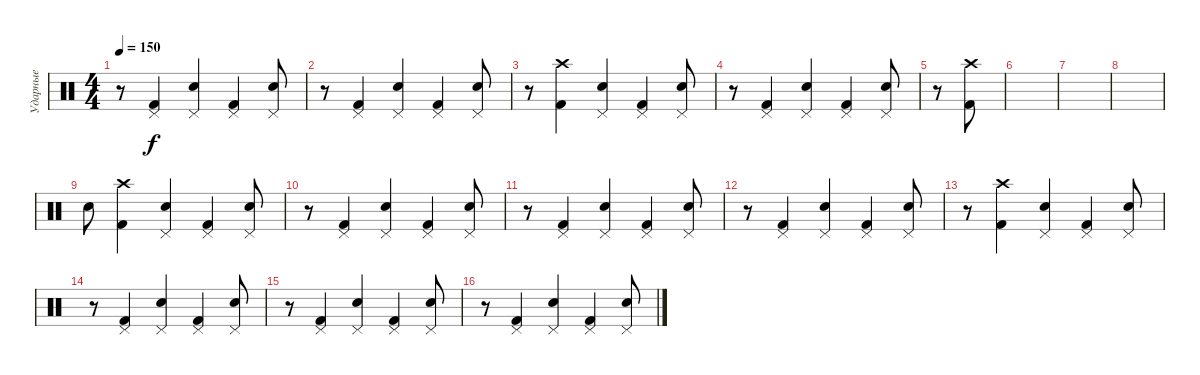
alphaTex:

\track ("Ударные" "Ударные") {instrument percussion}
\staff {score}
\articulation defaults
\ts (4 4)
\tempo 150
\clef neutral
\ks c
r.8{dy f} ("Kick (hit) 2" "Pedal Hi-Hat (hit)").4 ("Electric Snare (hit)" "Pedal Hi-Hat (hit)").4 ("Kick (hit) 2" "Pedal Hi-Hat (hit)").4 ("Electric Snare (hit)" "Pedal Hi-Hat (hit)").8 |
r.8 ("Kick (hit) 2" "Pedal Hi-Hat (hit)").4 ("Electric Snare (hit)" "Pedal Hi-Hat (hit)").4 ("Kick (hit) 2" "Pedal Hi-Hat (hit)").4 ("Electric Snare (hit)" "Pedal Hi-Hat (hit)").8 |
r.8 ("Kick (hit) 2" "Crash high (hit)").4 ("Electric Snare (hit)" "Pedal Hi-Hat (hit)").4 ("Kick (hit) 2" "Pedal Hi-Hat (hit)").4 ("Electric Snare (hit)" "Pedal Hi-Hat (hit)").8 |
r.8 ("Kick (hit) 2" "Pedal Hi-Hat (hit)").4 ("Electric Snare (hit)" "Pedal Hi-Hat (hit)").4 ("Kick (hit) 2" "Pedal Hi-Hat (hit)").4 ("Electric Snare (hit)" "Pedal Hi-Hat (hit)").8 |
r.8 ("Kick (hit) 2" "Crash high (hit)").8 |
|
|
|
"Electric Snare (hit)".8 ("Kick (hit) 2" "Crash high (hit)").4 ("Electric Snare (hit)" "Pedal Hi-Hat (hit)").4 ("Kick (hit) 2" "Pedal Hi-Hat (hit)").4 ("Electric Snare (hit)" "Pedal Hi-Hat (hit)").8 |
r.8 ("Kick (hit) 2" "Pedal Hi-Hat (hit)").4 ("Electric Snare (hit)" "Pedal Hi-Hat (hit)").4 ("Kick (hit) 2" "Pedal Hi-Hat (hit)").4 ("Electric Snare (hit)" "Pedal Hi-Hat (hit)").8 |
r.8 ("Kick (hit) 2" "Pedal Hi-Hat (hit)").4 ("Electric Snare (hit)" "Pedal Hi-Hat (hit)").4 ("Kick (hit) 2" "Pedal Hi-Hat (hit)").4 ("Electric Snare (hit)" "Pedal Hi-Hat (hit)").8 |
r.8 ("Kick (hit) 2" "Pedal Hi-Hat (hit)").4 ("Electric Snare (hit)" "Pedal Hi-Hat (hit)").4 ("Kick (hit) 2" "Pedal Hi-Hat (hit)").4 ("Electric Snare (hit)" "Pedal Hi-Hat (hit)").8 |
r.8 ("Kick (hit) 2" "Crash high (hit)").4 ("Electric Snare (hit)" "Pedal Hi-Hat (hit)").4 ("Kick (hit) 2" "Pedal Hi-Hat (hit)").4 ("Electric Snare (hit)" "Pedal Hi-Hat (hit)").8 |
r.8 ("Kick (hit) 2" "Pedal Hi-Hat (hit)").4 ("Electric Snare (hit)" "Pedal Hi-Hat (hit)").4 ("Kick (hit) 2" "Pedal Hi-Hat (hit)").4 ("Electric Snare (hit)" "Pedal Hi-Hat (hit)").8 |
r.8 ("Kick (hit) 2" "Pedal Hi-Hat (hit)").4 ("Electric Snare (hit)" "Pedal Hi-Hat (hit)").4 ("Kick (hit) 2" "Pedal Hi-Hat (hit)").4 ("Electric Snare (hit)" "Pedal Hi-Hat (hit)").8 |
r.8 ("Kick (hit) 2" "Pedal Hi-Hat (hit)").4 ("Electric Snare (hit)" "Pedal Hi-Hat (hit)").4 ("Kick (hit) 2" "Pedal Hi-Hat (hit)").4 ("Electric Snare (hit)" "Pedal Hi-Hat (hit)").8
